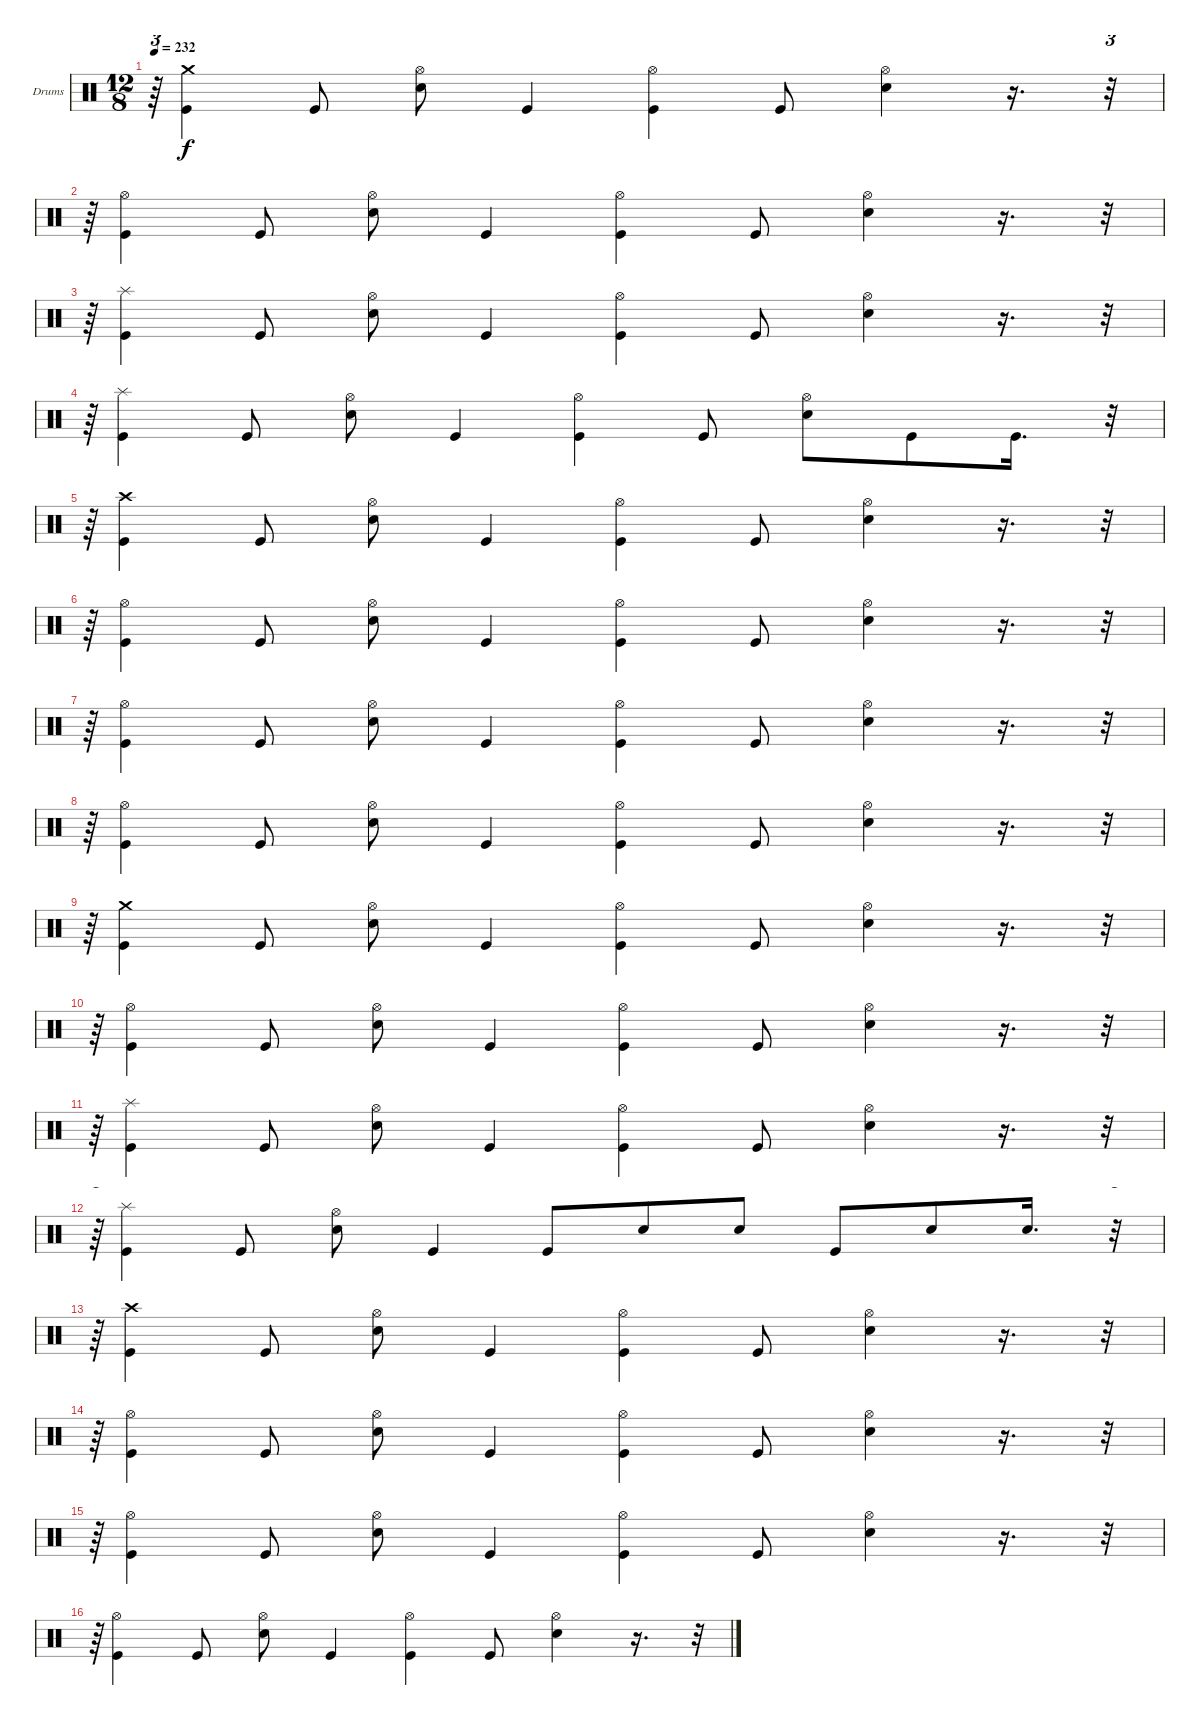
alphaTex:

\bracketExtendMode groupsimilarinstruments
\firstSystemTrackNameOrientation horizontal
\otherSystemsTrackNameOrientation horizontal
\track ("Ударные" "Drums") {instrument percussion}
\staff {score}
\articulation defaults
\ts (12 8)
\tempo 232
\clef neutral
\ks c
r.64{tu (3 2) dy f} ("Kick (hit)" "Crash medium (hit)").4 "Kick (hit)".8 ("Snare (hit) 2" "Hi-Hat (open)").8 "Kick (hit)".4 ("Kick (hit)" "Hi-Hat (open)").4 "Kick (hit)".8 ("Snare (hit) 2" "Hi-Hat (open)").4 r.16{d} r.32{tu (3 2)} |
r.64{tu (3 2)} ("Hi-Hat (open)" "Kick (hit)").4 "Kick (hit)".8 ("Hi-Hat (open)" "Snare (hit) 2").8 "Kick (hit)".4 ("Hi-Hat (open)" "Kick (hit)").4 "Kick (hit)".8 ("Hi-Hat (open)" "Snare (hit) 2").4 r.16{d} r.32{tu (3 2)} |
r.64{tu (3 2)} ("Splash (hit)" "Kick (hit)").4 "Kick (hit)".8 ("Hi-Hat (open)" "Snare (hit) 2").8 "Kick (hit)".4 ("Hi-Hat (open)" "Kick (hit)").4 "Kick (hit)".8 ("Hi-Hat (open)" "Snare (hit) 2").4 r.16{d} r.32{tu (3 2)} |
r.64{tu (3 2)} ("Splash (hit)" "Kick (hit)").4 "Kick (hit)".8 ("Hi-Hat (open)" "Snare (hit) 2").8 "Kick (hit)".4 ("Hi-Hat (open)" "Kick (hit)").4 "Kick (hit)".8 ("Snare (hit) 2" "Hi-Hat (open)").8 "Kick (hit)".8 "Kick (hit)".16{d} r.32{tu (3 2)} |
r.64{tu (3 2)} ("Kick (hit)" "Crash high (hit)").4 "Kick (hit)".8 ("Snare (hit) 2" "Hi-Hat (open)").8 "Kick (hit)".4 ("Kick (hit)" "Hi-Hat (open)").4 "Kick (hit)".8 ("Snare (hit) 2" "Hi-Hat (open)").4 r.16{d} r.32{tu (3 2)} |
r.64{tu (3 2)} ("Hi-Hat (open)" "Kick (hit)").4 "Kick (hit)".8 ("Hi-Hat (open)" "Snare (hit) 2").8 "Kick (hit)".4 ("Hi-Hat (open)" "Kick (hit)").4 "Kick (hit)".8 ("Hi-Hat (open)" "Snare (hit) 2").4 r.16{d} r.32{tu (3 2)} |
r.64{tu (3 2)} ("Hi-Hat (open)" "Kick (hit)").4 "Kick (hit)".8 ("Hi-Hat (open)" "Snare (hit) 2").8 "Kick (hit)".4 ("Hi-Hat (open)" "Kick (hit)").4 "Kick (hit)".8 ("Hi-Hat (open)" "Snare (hit) 2").4 r.16{d} r.32{tu (3 2)} |
r.64{tu (3 2)} ("Hi-Hat (open)" "Kick (hit)").4 "Kick (hit)".8 ("Hi-Hat (open)" "Snare (hit) 2").8 "Kick (hit)".4 ("Hi-Hat (open)" "Kick (hit)").4 "Kick (hit)".8 ("Hi-Hat (open)" "Snare (hit) 2").4 r.16{d} r.32{tu (3 2)} |
r.64{tu (3 2)} ("Kick (hit)" "Crash medium (hit)").4 "Kick (hit)".8 ("Snare (hit) 2" "Hi-Hat (open)").8 "Kick (hit)".4 ("Kick (hit)" "Hi-Hat (open)").4 "Kick (hit)".8 ("Snare (hit) 2" "Hi-Hat (open)").4 r.16{d} r.32{tu (3 2)} |
r.64{tu (3 2)} ("Hi-Hat (open)" "Kick (hit)").4 "Kick (hit)".8 ("Hi-Hat (open)" "Snare (hit) 2").8 "Kick (hit)".4 ("Hi-Hat (open)" "Kick (hit)").4 "Kick (hit)".8 ("Hi-Hat (open)" "Snare (hit) 2").4 r.16{d} r.32{tu (3 2)} |
r.64{tu (3 2)} ("Splash (hit)" "Kick (hit)").4 "Kick (hit)".8 ("Hi-Hat (open)" "Snare (hit) 2").8 "Kick (hit)".4 ("Hi-Hat (open)" "Kick (hit)").4 "Kick (hit)".8 ("Hi-Hat (open)" "Snare (hit) 2").4 r.16{d} r.32{tu (3 2)} |
r.64{tu (3 2)} ("Splash (hit)" "Kick (hit)").4 "Kick (hit)".8 ("Hi-Hat (open)" "Snare (hit) 2").8 "Kick (hit)".4 "Kick (hit)".8 "Snare (hit) 2".8 "Snare (hit) 2".8 "Kick (hit)".8 "Snare (hit) 2".8 "Snare (hit) 2".16{d} r.32{tu (3 2)} |
r.64{tu (3 2)} ("Kick (hit)" "Crash high (hit)").4 "Kick (hit)".8 ("Snare (hit) 2" "Hi-Hat (open)").8 "Kick (hit)".4 ("Kick (hit)" "Hi-Hat (open)").4 "Kick (hit)".8 ("Snare (hit) 2" "Hi-Hat (open)").4 r.16{d} r.32{tu (3 2)} |
r.64{tu (3 2)} ("Hi-Hat (open)" "Kick (hit)").4 "Kick (hit)".8 ("Hi-Hat (open)" "Snare (hit) 2").8 "Kick (hit)".4 ("Hi-Hat (open)" "Kick (hit)").4 "Kick (hit)".8 ("Hi-Hat (open)" "Snare (hit) 2").4 r.16{d} r.32{tu (3 2)} |
r.64{tu (3 2)} ("Hi-Hat (open)" "Kick (hit)").4 "Kick (hit)".8 ("Hi-Hat (open)" "Snare (hit) 2").8 "Kick (hit)".4 ("Hi-Hat (open)" "Kick (hit)").4 "Kick (hit)".8 ("Hi-Hat (open)" "Snare (hit) 2").4 r.16{d} r.32{tu (3 2)} |
r.64{tu (3 2)} ("Hi-Hat (open)" "Kick (hit)").4 "Kick (hit)".8 ("Hi-Hat (open)" "Snare (hit) 2").8 "Kick (hit)".4 ("Hi-Hat (open)" "Kick (hit)").4 "Kick (hit)".8 ("Hi-Hat (open)" "Snare (hit) 2").4 r.16{d} r.32{tu (3 2)}
